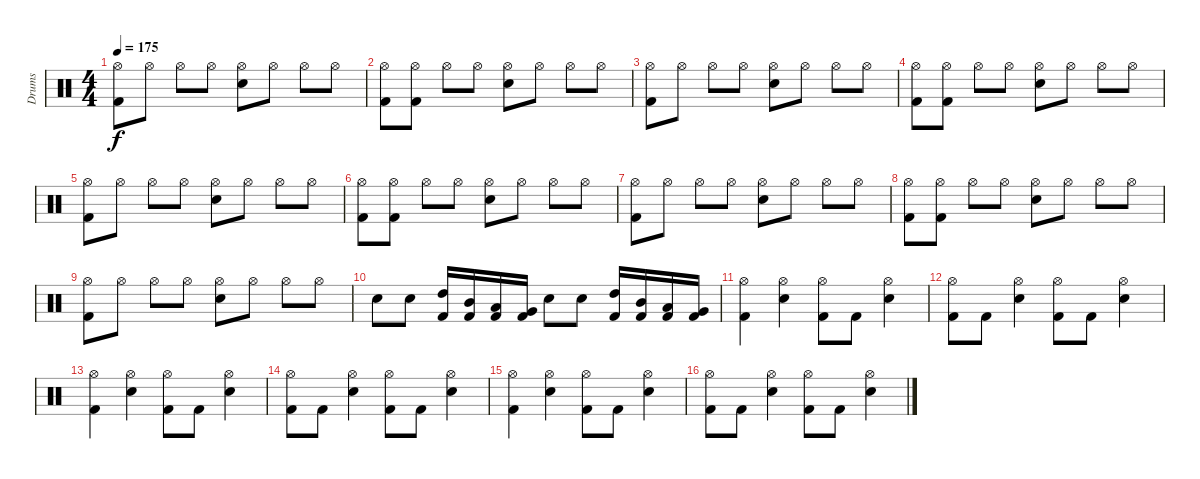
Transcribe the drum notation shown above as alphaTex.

\track ("Drums" "Drums") {instrument percussion}
\staff {score}
\articulation defaults
\ts (4 4)
\tempo 175
\clef neutral
\ks c
("Kick (hit) 2" "Hi-Hat (open)").8{dy f} "Hi-Hat (open)".8 "Hi-Hat (open)".8 "Hi-Hat (open)".8 ("Electric Snare (hit)" "Hi-Hat (open)").8 "Hi-Hat (open)".8 "Hi-Hat (open)".8 "Hi-Hat (open)".8 |
("Kick (hit) 2" "Hi-Hat (open)").8 ("Kick (hit) 2" "Hi-Hat (open)").8 "Hi-Hat (open)".8 "Hi-Hat (open)".8 ("Electric Snare (hit)" "Hi-Hat (open)").8 "Hi-Hat (open)".8 "Hi-Hat (open)".8 "Hi-Hat (open)".8 |
("Kick (hit) 2" "Hi-Hat (open)").8 "Hi-Hat (open)".8 "Hi-Hat (open)".8 "Hi-Hat (open)".8 ("Electric Snare (hit)" "Hi-Hat (open)").8 "Hi-Hat (open)".8 "Hi-Hat (open)".8 "Hi-Hat (open)".8 |
("Kick (hit) 2" "Hi-Hat (open)").8 ("Kick (hit) 2" "Hi-Hat (open)").8 "Hi-Hat (open)".8 "Hi-Hat (open)".8 ("Electric Snare (hit)" "Hi-Hat (open)").8 "Hi-Hat (open)".8 "Hi-Hat (open)".8 "Hi-Hat (open)".8 |
("Kick (hit) 2" "Hi-Hat (open)").8 "Hi-Hat (open)".8 "Hi-Hat (open)".8 "Hi-Hat (open)".8 ("Electric Snare (hit)" "Hi-Hat (open)").8 "Hi-Hat (open)".8 "Hi-Hat (open)".8 "Hi-Hat (open)".8 |
("Kick (hit) 2" "Hi-Hat (open)").8 ("Kick (hit) 2" "Hi-Hat (open)").8 "Hi-Hat (open)".8 "Hi-Hat (open)".8 ("Electric Snare (hit)" "Hi-Hat (open)").8 "Hi-Hat (open)".8 "Hi-Hat (open)".8 "Hi-Hat (open)".8 |
("Kick (hit) 2" "Hi-Hat (open)").8 "Hi-Hat (open)".8 "Hi-Hat (open)".8 "Hi-Hat (open)".8 ("Electric Snare (hit)" "Hi-Hat (open)").8 "Hi-Hat (open)".8 "Hi-Hat (open)".8 "Hi-Hat (open)".8 |
("Kick (hit) 2" "Hi-Hat (open)").8 ("Kick (hit) 2" "Hi-Hat (open)").8 "Hi-Hat (open)".8 "Hi-Hat (open)".8 ("Electric Snare (hit)" "Hi-Hat (open)").8 "Hi-Hat (open)".8 "Hi-Hat (open)".8 "Hi-Hat (open)".8 |
("Kick (hit) 2" "Hi-Hat (open)").8 "Hi-Hat (open)".8 "Hi-Hat (open)".8 "Hi-Hat (open)".8 ("Electric Snare (hit)" "Hi-Hat (open)").8 "Hi-Hat (open)".8 "Hi-Hat (open)".8 "Hi-Hat (open)".8 |
"Electric Snare (hit)".8 "Electric Snare (hit)".8 ("Kick (hit) 2" "High Tom (hit)").16 ("Kick (hit) 2" "Mid Tom (hit)").16 ("Kick (hit) 2" "Low Tom (hit)").16 ("Kick (hit) 2" "Very Low Tom (hit)").16 "Electric Snare (hit)".8 "Electric Snare (hit)".8 ("Kick (hit) 2" "High Tom (hit)").16 ("Kick (hit) 2" "Mid Tom (hit)").16 ("Kick (hit) 2" "Low Tom (hit)").16 ("Kick (hit) 2" "Very Low Tom (hit)").16 |
("Kick (hit) 2" "Hi-Hat (open)").4 ("Electric Snare (hit)" "Hi-Hat (open)").4 ("Kick (hit) 2" "Hi-Hat (open)").8 "Kick (hit) 2".8 ("Electric Snare (hit)" "Hi-Hat (open)").4 |
("Kick (hit) 2" "Hi-Hat (open)").8 "Kick (hit) 2".8 ("Electric Snare (hit)" "Hi-Hat (open)").4 ("Kick (hit) 2" "Hi-Hat (open)").8 "Kick (hit) 2".8 ("Electric Snare (hit)" "Hi-Hat (open)").4 |
("Kick (hit) 2" "Hi-Hat (open)").4 ("Electric Snare (hit)" "Hi-Hat (open)").4 ("Kick (hit) 2" "Hi-Hat (open)").8 "Kick (hit) 2".8 ("Electric Snare (hit)" "Hi-Hat (open)").4 |
("Kick (hit) 2" "Hi-Hat (open)").8 "Kick (hit) 2".8 ("Electric Snare (hit)" "Hi-Hat (open)").4 ("Kick (hit) 2" "Hi-Hat (open)").8 "Kick (hit) 2".8 ("Electric Snare (hit)" "Hi-Hat (open)").4 |
("Kick (hit) 2" "Hi-Hat (open)").4 ("Electric Snare (hit)" "Hi-Hat (open)").4 ("Kick (hit) 2" "Hi-Hat (open)").8 "Kick (hit) 2".8 ("Electric Snare (hit)" "Hi-Hat (open)").4 |
("Kick (hit) 2" "Hi-Hat (open)").8 "Kick (hit) 2".8 ("Electric Snare (hit)" "Hi-Hat (open)").4 ("Kick (hit) 2" "Hi-Hat (open)").8 "Kick (hit) 2".8 ("Electric Snare (hit)" "Hi-Hat (open)").4
